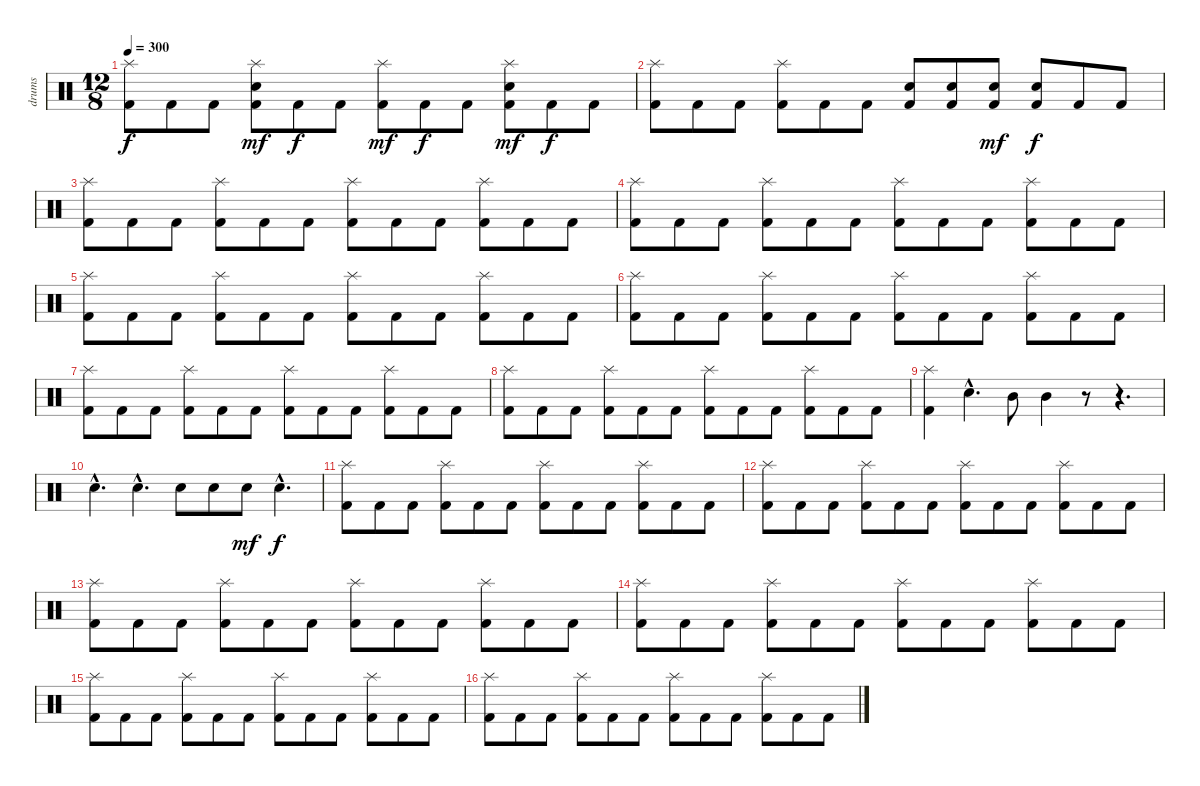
\track ("drums" "drums") {instrument percussion}
\staff {score}
\articulation defaults
\ts (12 8)
\tempo 300
\clef neutral
\ks c
("Splash (hit)" "Kick (hit) 2").8{dy f} "Kick (hit) 2".8 "Kick (hit) 2".8 ("Splash (hit)" "Snare (hit) 2" "Kick (hit) 2").8{dy mf} "Kick (hit) 2".8{dy f} "Kick (hit) 2".8 ("Splash (hit)" "Kick (hit) 2").8{dy mf} "Kick (hit) 2".8{dy f} "Kick (hit) 2".8 ("Splash (hit)" "Snare (hit) 2" "Kick (hit) 2").8{dy mf} "Kick (hit) 2".8{dy f} "Kick (hit) 2".8 |
("Splash (hit)" "Kick (hit) 2").8 "Kick (hit) 2".8 "Kick (hit) 2".8 ("Splash (hit)" "Kick (hit) 2").8 "Kick (hit) 2".8 "Kick (hit) 2".8 ("Snare (hit) 2" "Kick (hit) 2").8 ("Snare (hit) 2" "Kick (hit) 2").8 ("Snare (hit) 2" "Kick (hit) 2").8{dy mf} ("Snare (hit) 2" "Kick (hit) 2").8{dy f} "Kick (hit) 2".8 "Kick (hit) 2".8 |
("Splash (hit)" "Kick (hit) 2").8 "Kick (hit) 2".8 "Kick (hit) 2".8 ("Splash (hit)" "Kick (hit) 2").8 "Kick (hit) 2".8 "Kick (hit) 2".8 ("Splash (hit)" "Kick (hit) 2").8 "Kick (hit) 2".8 "Kick (hit) 2".8 ("Splash (hit)" "Kick (hit) 2").8 "Kick (hit) 2".8 "Kick (hit) 2".8 |
("Splash (hit)" "Kick (hit) 2").8 "Kick (hit) 2".8 "Kick (hit) 2".8 ("Splash (hit)" "Kick (hit) 2").8 "Kick (hit) 2".8 "Kick (hit) 2".8 ("Splash (hit)" "Kick (hit) 2").8 "Kick (hit) 2".8 "Kick (hit) 2".8 ("Splash (hit)" "Kick (hit) 2").8 "Kick (hit) 2".8 "Kick (hit) 2".8 |
("Splash (hit)" "Kick (hit) 2").8 "Kick (hit) 2".8 "Kick (hit) 2".8 ("Splash (hit)" "Kick (hit) 2").8 "Kick (hit) 2".8 "Kick (hit) 2".8 ("Splash (hit)" "Kick (hit) 2").8 "Kick (hit) 2".8 "Kick (hit) 2".8 ("Splash (hit)" "Kick (hit) 2").8 "Kick (hit) 2".8 "Kick (hit) 2".8 |
("Splash (hit)" "Kick (hit) 2").8 "Kick (hit) 2".8 "Kick (hit) 2".8 ("Splash (hit)" "Kick (hit) 2").8 "Kick (hit) 2".8 "Kick (hit) 2".8 ("Splash (hit)" "Kick (hit) 2").8 "Kick (hit) 2".8 "Kick (hit) 2".8 ("Splash (hit)" "Kick (hit) 2").8 "Kick (hit) 2".8 "Kick (hit) 2".8 |
("Splash (hit)" "Kick (hit) 2").8 "Kick (hit) 2".8 "Kick (hit) 2".8 ("Splash (hit)" "Kick (hit) 2").8 "Kick (hit) 2".8 "Kick (hit) 2".8 ("Splash (hit)" "Kick (hit) 2").8 "Kick (hit) 2".8 "Kick (hit) 2".8 ("Splash (hit)" "Kick (hit) 2").8 "Kick (hit) 2".8 "Kick (hit) 2".8 |
("Splash (hit)" "Kick (hit) 2").8 "Kick (hit) 2".8 "Kick (hit) 2".8 ("Splash (hit)" "Kick (hit) 2").8 "Kick (hit) 2".8 "Kick (hit) 2".8 ("Splash (hit)" "Kick (hit) 2").8 "Kick (hit) 2".8 "Kick (hit) 2".8 ("Splash (hit)" "Kick (hit) 2").8 "Kick (hit) 2".8 "Kick (hit) 2".8 |
("Splash (hit)" "Kick (hit) 2").4 "Snare (hit) 2"{hac}.4{d} "Mid Tom (hit)".8 "Mid Tom (hit)".4 r.8 r.4{d} |
"Snare (hit) 2"{hac}.4{d} "Snare (hit) 2"{hac}.4{d} "Snare (hit) 2".8 "Snare (hit) 2".8 "Snare (hit) 2".8{dy mf} "Snare (hit) 2"{hac}.4{d dy f} |
("Splash (hit)" "Kick (hit) 2").8 "Kick (hit) 2".8 "Kick (hit) 2".8 ("Splash (hit)" "Kick (hit) 2").8 "Kick (hit) 2".8 "Kick (hit) 2".8 ("Splash (hit)" "Kick (hit) 2").8 "Kick (hit) 2".8 "Kick (hit) 2".8 ("Splash (hit)" "Kick (hit) 2").8 "Kick (hit) 2".8 "Kick (hit) 2".8 |
("Splash (hit)" "Kick (hit) 2").8 "Kick (hit) 2".8 "Kick (hit) 2".8 ("Splash (hit)" "Kick (hit) 2").8 "Kick (hit) 2".8 "Kick (hit) 2".8 ("Splash (hit)" "Kick (hit) 2").8 "Kick (hit) 2".8 "Kick (hit) 2".8 ("Splash (hit)" "Kick (hit) 2").8 "Kick (hit) 2".8 "Kick (hit) 2".8 |
("Splash (hit)" "Kick (hit) 2").8 "Kick (hit) 2".8 "Kick (hit) 2".8 ("Splash (hit)" "Kick (hit) 2").8 "Kick (hit) 2".8 "Kick (hit) 2".8 ("Splash (hit)" "Kick (hit) 2").8 "Kick (hit) 2".8 "Kick (hit) 2".8 ("Splash (hit)" "Kick (hit) 2").8 "Kick (hit) 2".8 "Kick (hit) 2".8 |
("Splash (hit)" "Kick (hit) 2").8 "Kick (hit) 2".8 "Kick (hit) 2".8 ("Splash (hit)" "Kick (hit) 2").8 "Kick (hit) 2".8 "Kick (hit) 2".8 ("Splash (hit)" "Kick (hit) 2").8 "Kick (hit) 2".8 "Kick (hit) 2".8 ("Splash (hit)" "Kick (hit) 2").8 "Kick (hit) 2".8 "Kick (hit) 2".8 |
("Splash (hit)" "Kick (hit) 2").8 "Kick (hit) 2".8 "Kick (hit) 2".8 ("Splash (hit)" "Kick (hit) 2").8 "Kick (hit) 2".8 "Kick (hit) 2".8 ("Splash (hit)" "Kick (hit) 2").8 "Kick (hit) 2".8 "Kick (hit) 2".8 ("Splash (hit)" "Kick (hit) 2").8 "Kick (hit) 2".8 "Kick (hit) 2".8 |
("Splash (hit)" "Kick (hit) 2").8 "Kick (hit) 2".8 "Kick (hit) 2".8 ("Splash (hit)" "Kick (hit) 2").8 "Kick (hit) 2".8 "Kick (hit) 2".8 ("Splash (hit)" "Kick (hit) 2").8 "Kick (hit) 2".8 "Kick (hit) 2".8 ("Splash (hit)" "Kick (hit) 2").8 "Kick (hit) 2".8 "Kick (hit) 2".8
